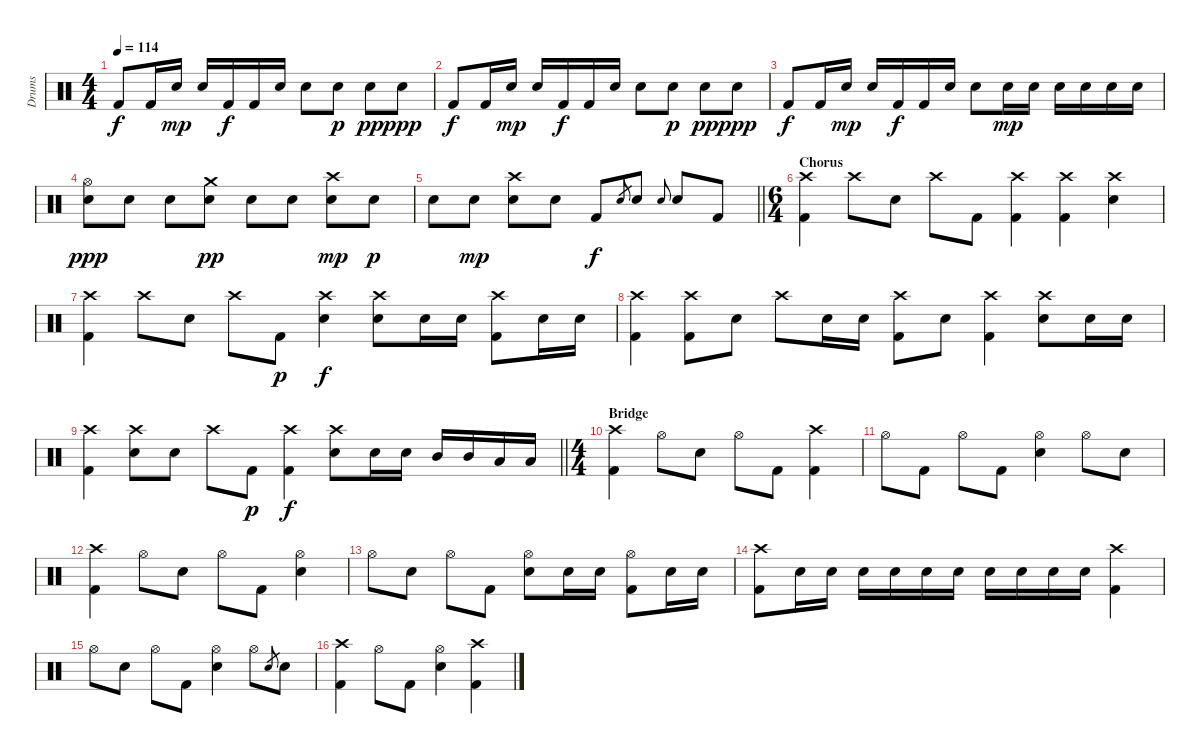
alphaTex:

\track ("Drums" "Drums") {instrument percussion}
\staff {score}
\articulation defaults
\ts (4 4)
\tempo 114
\clef neutral
\ks c "Kick (hit) 2".8{dy f} "Kick (hit) 2".16 "Electric Snare (hit)".16{dy mp} "Electric Snare (hit)".16 "Kick (hit) 2".16{dy f} "Kick (hit) 2".16 "Electric Snare (hit)".16 "Electric Snare (hit)".8 "Electric Snare (hit)".8{dy p} "Electric Snare (hit)".8{dy pp} "Electric Snare (hit)".8{dy ppp}
|
"Kick (hit) 2".8{dy f} "Kick (hit) 2".16 "Electric Snare (hit)".16{dy mp} "Electric Snare (hit)".16 "Kick (hit) 2".16{dy f} "Kick (hit) 2".16 "Electric Snare (hit)".16 "Electric Snare (hit)".8 "Electric Snare (hit)".8{dy p} "Electric Snare (hit)".8{dy pp} "Electric Snare (hit)".8{dy ppp} |
"Kick (hit) 2".8{dy f} "Kick (hit) 2".16 "Electric Snare (hit)".16{dy mp} "Electric Snare (hit)".16 "Kick (hit) 2".16{dy f} "Kick (hit) 2".16 "Electric Snare (hit)".16 "Electric Snare (hit)".8 "Electric Snare (hit)".16{dy mp} "Electric Snare (hit)".16 "Electric Snare (hit)".16 "Electric Snare (hit)".16 "Electric Snare (hit)".16 "Electric Snare (hit)".16 |
("Hi-Hat (open)" "Electric Snare (hit)").8{dy ppp} "Electric Snare (hit)".8 "Electric Snare (hit)".8 ("Crash medium (hit)" "Electric Snare (hit)").8{dy pp} "Electric Snare (hit)".8 "Electric Snare (hit)".8 ("Crash high (hit)" "Electric Snare (hit)").8{dy mp} "Electric Snare (hit)".8{dy p} |
\barLineRight lightlight "Electric Snare (hit)".8 "Electric Snare (hit)".8{dy mp}
("Crash high (hit)" "Electric Snare (hit)").8 "Electric Snare (hit)".8 "Kick (hit) 2".8{dy f} "Electric Snare (hit)".8{gr} "Electric Snare (hit)".8 "Electric Snare (hit)".8{gr onbeat} "Electric Snare (hit)".8 "Kick (hit) 2".8 |
\ts (6 4)
\section ("" "Chorus")
("Crash high (hit)" "Kick (hit) 2").4 "Crash high (hit)".8 "Electric Snare (hit)".8 "Crash high (hit)".8 "Kick (hit) 2".8 ("Crash high (hit)" "Kick (hit) 2").4 ("Crash high (hit)" "Kick (hit) 2").4 ("Crash high (hit)" "Electric Snare (hit)").4 |
("Crash high (hit)" "Kick (hit) 2").4 "Crash high (hit)".8 "Electric Snare (hit)".8 "Crash high (hit)".8 "Kick (hit) 2".8{dy p} ("Crash high (hit)" "Electric Snare (hit)").4{dy f} ("Crash high (hit)" "Electric Snare (hit)").8 "Electric Snare (hit)".16 "Electric Snare (hit)".16 ("Crash high (hit)" "Kick (hit) 2").8 "Electric Snare (hit)".16 "Electric Snare (hit)".16 |
("Crash high (hit)" "Kick (hit) 2").4 ("Crash high (hit)" "Kick (hit) 2").8 "Electric Snare (hit)".8 "Crash high (hit)".8 "Electric Snare (hit)".16 "Electric Snare (hit)".16 ("Crash high (hit)" "Kick (hit) 2").8 "Electric Snare (hit)".8 ("Crash high (hit)" "Kick (hit) 2").4 ("Crash high (hit)" "Electric Snare (hit)").8 "Electric Snare (hit)".16 "Electric Snare (hit)".16 |
\barLineRight lightlight
("Crash high (hit)" "Kick (hit) 2").4 ("Crash high (hit)" "Electric Snare (hit)").8 "Electric Snare (hit)".8 "Crash high (hit)".8 "Kick (hit) 2".8{dy p} ("Crash high (hit)" "Kick (hit) 2").4{dy f} ("Crash high (hit)" "Electric Snare (hit)").8 "Electric Snare (hit)".16 "Electric Snare (hit)".16 "Mid Tom (hit)".16 "Mid Tom (hit)".16 "Low Tom (hit)".16 "Low Tom (hit)".16 |
\ts (4 4)
\section ("" "Bridge")
("Crash high (hit)" "Kick (hit) 2").4 "Hi-Hat (open)".8 "Electric Snare (hit)".8 "Hi-Hat (open)".8 "Kick (hit) 2".8 ("Crash high (hit)" "Kick (hit) 2").4 |
"Hi-Hat (open)".8 "Kick (hit) 2".8 "Hi-Hat (open)".8 "Kick (hit) 2".8 ("Hi-Hat (open)" "Electric Snare (hit)").4 "Hi-Hat (open)".8 "Electric Snare (hit)".8 |
("Crash high (hit)" "Kick (hit) 2").4 "Hi-Hat (open)".8 "Electric Snare (hit)".8 "Hi-Hat (open)".8 "Kick (hit) 2".8 ("Hi-Hat (open)" "Electric Snare (hit)").4 |
"Hi-Hat (open)".8 "Electric Snare (hit)".8 "Hi-Hat (open)".8 "Kick (hit) 2".8 ("Hi-Hat (open)" "Electric Snare (hit)").8 "Electric Snare (hit)".16 "Electric Snare (hit)".16 ("Hi-Hat (open)" "Kick (hit) 2").8 "Electric Snare (hit)".16 "Electric Snare (hit)".16 |
("Crash high (hit)" "Kick (hit) 2").8 "Electric Snare (hit)".16 "Electric Snare (hit)".16 "Electric Snare (hit)".16 "Electric Snare (hit)".16 "Electric Snare (hit)".16 "Electric Snare (hit)".16 "Electric Snare (hit)".16 "Electric Snare (hit)".16 "Electric Snare (hit)".16 "Electric Snare (hit)".16 ("Crash high (hit)" "Kick (hit) 2").4 |
"Hi-Hat (open)".8 "Electric Snare (hit)".8 "Hi-Hat (open)".8 "Kick (hit) 2".8 ("Hi-Hat (open)" "Electric Snare (hit)").4 "Hi-Hat (open)".8 "Electric Snare (hit)".8{gr} "Electric Snare (hit)".8 |
("Crash high (hit)" "Kick (hit) 2").4 "Hi-Hat (open)".8 "Kick (hit) 2".8 ("Hi-Hat (open)" "Electric Snare (hit)").4 ("Crash high (hit)" "Kick (hit) 2").4
